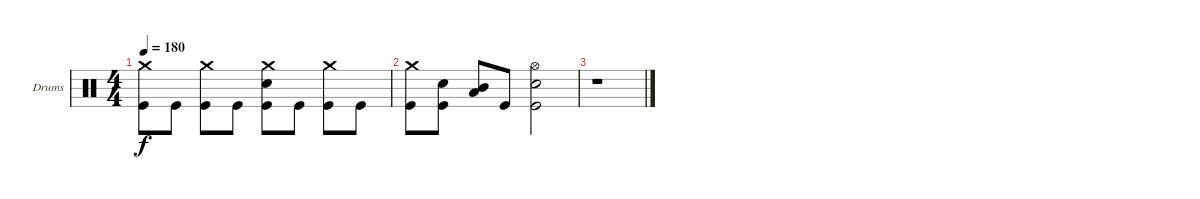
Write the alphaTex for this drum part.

\defaultSystemsLayout 4
\bracketExtendMode groupsimilarinstruments
\firstSystemTrackNameOrientation horizontal
\otherSystemsTrackNameOrientation horizontal
\track ("Барабаны" "Drums") {instrument percussion}
\staff {score}
\articulation defaults
\ts (4 4)
\tempo 180
\clef neutral
\scale
0.333333
\ks c
("Crash medium (hit)" "Kick (hit)").8{dy f} "Kick (hit)".8 ("Crash medium (hit)" "Kick (hit)").8 "Kick (hit)".8 ("Crash medium (hit)" "Snare (hit) 2" "Kick (hit)").8 "Kick (hit)".8 ("Crash medium (hit)" "Kick (hit)").8 "Kick (hit)".8 |
\scale
0.333333 ("Crash medium (hit)" "Kick (hit)").8 ("Snare (hit) 2" "Kick (hit)").8 ("Low Tom (hit)" "Mid Tom (hit)").8 "Kick (hit)".8 ("Hi-Hat (open)" "Snare (hit) 2" "Kick (hit)").2 |
r.1
